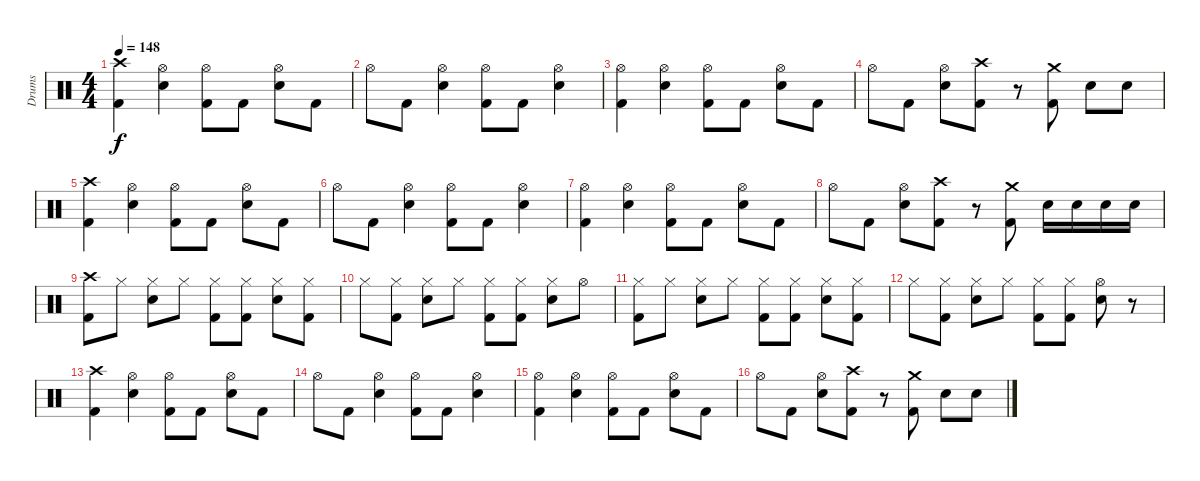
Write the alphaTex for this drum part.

\track ("Drums" "Drums") {instrument percussion}
\staff {score}
\articulation defaults
\ts (4 4)
\tempo 148
\clef neutral
\ks c
("Crash high (hit)" "Kick (hit) 2").4{dy f} ("Hi-Hat (open)" "Snare (hit) 2").4 ("Hi-Hat (open)" "Kick (hit) 2").8 "Kick (hit) 2".8 ("Hi-Hat (open)" "Snare (hit) 2").8 "Kick (hit) 2".8 |
"Hi-Hat (open)".8 "Kick (hit) 2".8 ("Hi-Hat (open)" "Snare (hit) 2").4 ("Hi-Hat (open)" "Kick (hit) 2").8 "Kick (hit) 2".8 ("Hi-Hat (open)" "Snare (hit) 2").4 |
("Hi-Hat (open)" "Kick (hit) 2").4 ("Hi-Hat (open)" "Snare (hit) 2").4 ("Hi-Hat (open)" "Kick (hit) 2").8 "Kick (hit) 2".8 ("Hi-Hat (open)" "Snare (hit) 2").8 "Kick (hit) 2".8 |
"Hi-Hat (open)".8 "Kick (hit) 2".8 ("Hi-Hat (open)" "Snare (hit) 2").8 ("Crash high (hit)" "Kick (hit) 2").8 r.8 ("Crash medium (hit)" "Kick (hit) 2").8 "Snare (hit) 2".8 "Snare (hit) 2".8 |
("Crash high (hit)" "Kick (hit) 2").4 ("Hi-Hat (open)" "Snare (hit) 2").4 ("Hi-Hat (open)" "Kick (hit) 2").8 "Kick (hit) 2".8 ("Hi-Hat (open)" "Snare (hit) 2").8 "Kick (hit) 2".8 |
"Hi-Hat (open)".8 "Kick (hit) 2".8 ("Hi-Hat (open)" "Snare (hit) 2").4 ("Hi-Hat (open)" "Kick (hit) 2").8 "Kick (hit) 2".8 ("Hi-Hat (open)" "Snare (hit) 2").4 |
("Hi-Hat (open)" "Kick (hit) 2").4 ("Hi-Hat (open)" "Snare (hit) 2").4 ("Hi-Hat (open)" "Kick (hit) 2").8 "Kick (hit) 2".8 ("Hi-Hat (open)" "Snare (hit) 2").8 "Kick (hit) 2".8 |
"Hi-Hat (open)".8 "Kick (hit) 2".8 ("Hi-Hat (open)" "Snare (hit) 2").8 ("Crash high (hit)" "Kick (hit) 2").8 r.8 ("Crash medium (hit)" "Kick (hit) 2").8 "Snare (hit) 2".16 "Snare (hit) 2".16 "Snare (hit) 2".16 "Snare (hit) 2".16 |
("Crash high (hit)" "Kick (hit) 2").8 "Hi-Hat (closed)".8 ("Hi-Hat (closed)" "Snare (hit) 2").8 "Hi-Hat (closed)".8 ("Hi-Hat (closed)" "Kick (hit) 2").8 ("Hi-Hat (closed)" "Kick (hit) 2").8 ("Hi-Hat (closed)" "Snare (hit) 2").8 ("Hi-Hat (closed)" "Kick (hit) 2").8 |
"Hi-Hat (closed)".8 ("Hi-Hat (closed)" "Kick (hit) 2").8 ("Hi-Hat (closed)" "Snare (hit) 2").8 "Hi-Hat (closed)".8 ("Hi-Hat (closed)" "Kick (hit) 2").8 ("Hi-Hat (closed)" "Kick (hit) 2").8 ("Hi-Hat (closed)" "Snare (hit) 2").8 "Hi-Hat (open)".8 |
("Hi-Hat (closed)" "Kick (hit) 2").8 "Hi-Hat (closed)".8 ("Hi-Hat (closed)" "Snare (hit) 2").8 "Hi-Hat (closed)".8 ("Hi-Hat (closed)" "Kick (hit) 2").8 ("Hi-Hat (closed)" "Kick (hit) 2").8 ("Hi-Hat (closed)" "Snare (hit) 2").8 ("Hi-Hat (closed)" "Kick (hit) 2").8 |
"Hi-Hat (closed)".8 ("Hi-Hat (closed)" "Kick (hit) 2").8 ("Hi-Hat (closed)" "Snare (hit) 2").8 "Hi-Hat (closed)".8 ("Hi-Hat (closed)" "Kick (hit) 2").8 ("Hi-Hat (closed)" "Kick (hit) 2").8 ("Hi-Hat (open)" "Snare (hit) 2").8 r.8 |
("Crash high (hit)" "Kick (hit) 2").4 ("Hi-Hat (open)" "Snare (hit) 2").4 ("Hi-Hat (open)" "Kick (hit) 2").8 "Kick (hit) 2".8 ("Hi-Hat (open)" "Snare (hit) 2").8 "Kick (hit) 2".8 |
"Hi-Hat (open)".8 "Kick (hit) 2".8 ("Hi-Hat (open)" "Snare (hit) 2").4 ("Hi-Hat (open)" "Kick (hit) 2").8 "Kick (hit) 2".8 ("Hi-Hat (open)" "Snare (hit) 2").4 |
("Hi-Hat (open)" "Kick (hit) 2").4 ("Hi-Hat (open)" "Snare (hit) 2").4 ("Hi-Hat (open)" "Kick (hit) 2").8 "Kick (hit) 2".8 ("Hi-Hat (open)" "Snare (hit) 2").8 "Kick (hit) 2".8 |
"Hi-Hat (open)".8 "Kick (hit) 2".8 ("Hi-Hat (open)" "Snare (hit) 2").8 ("Crash high (hit)" "Kick (hit) 2").8 r.8 ("Crash medium (hit)" "Kick (hit) 2").8 "Snare (hit) 2".8 "Snare (hit) 2".8
